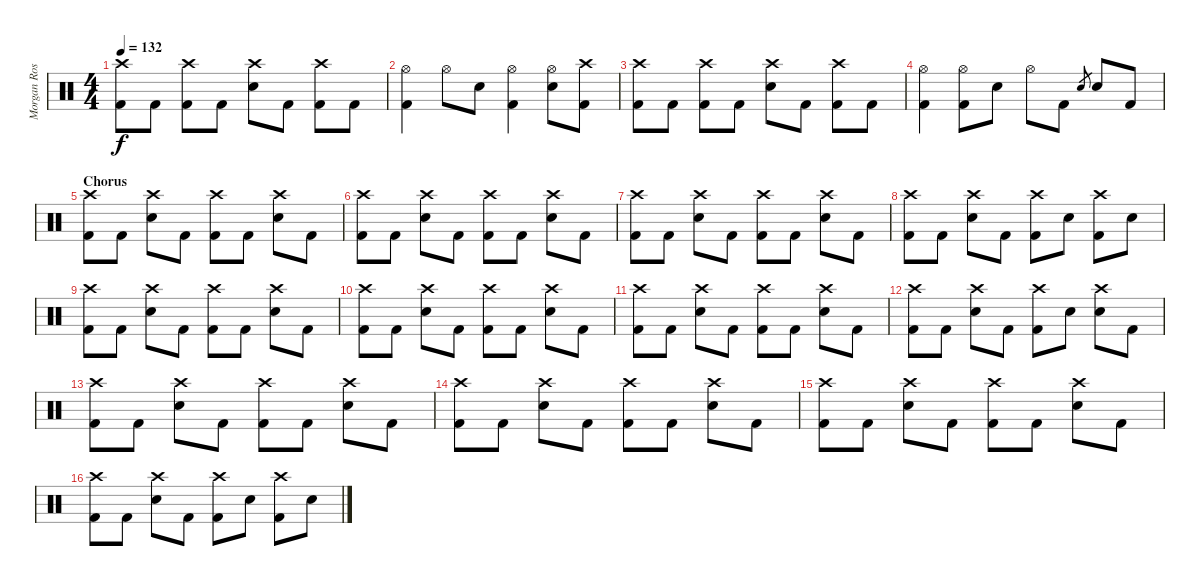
\track ("Morgan Rose" "Morgan Ros") {instrument percussion}
\staff {score}
\articulation defaults
\ts (4 4)
\tempo 132
\clef neutral
\ks c
("Crash high (hit)" "Kick (hit) 2").8{dy f} "Kick (hit) 2".8 ("Crash high (hit)" "Kick (hit) 2").8 "Kick (hit) 2".8 ("Crash high (hit)" "Electric Snare (hit)").8 "Kick (hit) 2".8 ("Crash high (hit)" "Kick (hit) 2").8 "Kick (hit) 2".8 |
("Hi-Hat (open)" "Kick (hit) 2").4 "Hi-Hat (open)".8 "Electric Snare (hit)".8 ("Hi-Hat (open)" "Kick (hit) 2").4 ("Hi-Hat (open)" "Electric Snare (hit)").8 ("Crash high (hit)" "Kick (hit) 2").8 |
("Crash high (hit)" "Kick (hit) 2").8 "Kick (hit) 2".8 ("Crash high (hit)" "Kick (hit) 2").8 "Kick (hit) 2".8 ("Crash high (hit)" "Electric Snare (hit)").8 "Kick (hit) 2".8 ("Crash high (hit)" "Kick (hit) 2").8 "Kick (hit) 2".8 |
("Hi-Hat (open)" "Kick (hit) 2").4 ("Hi-Hat (open)" "Kick (hit) 2").8 "Electric Snare (hit)".8 "Hi-Hat (open)".8 "Kick (hit) 2".8 "Electric Snare (hit)"{h}.8{gr} "Electric Snare (hit)".8 "Kick (hit) 2".8 |
\section ("" "Chorus")
("Crash high (hit)" "Kick (hit) 2").8 "Kick (hit) 2".8 ("Crash high (hit)" "Electric Snare (hit)").8 "Kick (hit) 2".8 ("Crash high (hit)" "Kick (hit) 2").8 "Kick (hit) 2".8 ("Crash high (hit)" "Electric Snare (hit)").8 "Kick (hit) 2".8 |
("Crash high (hit)" "Kick (hit) 2").8 "Kick (hit) 2".8 ("Crash high (hit)" "Electric Snare (hit)").8 "Kick (hit) 2".8 ("Crash high (hit)" "Kick (hit) 2").8 "Kick (hit) 2".8 ("Crash high (hit)" "Electric Snare (hit)").8 "Kick (hit) 2".8 |
("Crash high (hit)" "Kick (hit) 2").8 "Kick (hit) 2".8 ("Crash high (hit)" "Electric Snare (hit)").8 "Kick (hit) 2".8 ("Crash high (hit)" "Kick (hit) 2").8 "Kick (hit) 2".8 ("Crash high (hit)" "Electric Snare (hit)").8 "Kick (hit) 2".8 |
("Crash high (hit)" "Kick (hit) 2").8 "Kick (hit) 2".8 ("Crash high (hit)" "Electric Snare (hit)").8 "Kick (hit) 2".8 ("Crash high (hit)" "Kick (hit) 2").8 "Electric Snare (hit)".8 ("Crash high (hit)" "Kick (hit) 2").8 "Electric Snare (hit)".8 |
("Crash high (hit)" "Kick (hit) 2").8 "Kick (hit) 2".8 ("Crash high (hit)" "Electric Snare (hit)").8 "Kick (hit) 2".8 ("Crash high (hit)" "Kick (hit) 2").8 "Kick (hit) 2".8 ("Crash high (hit)" "Electric Snare (hit)").8 "Kick (hit) 2".8 |
("Crash high (hit)" "Kick (hit) 2").8 "Kick (hit) 2".8 ("Crash high (hit)" "Electric Snare (hit)").8 "Kick (hit) 2".8 ("Crash high (hit)" "Kick (hit) 2").8 "Kick (hit) 2".8 ("Crash high (hit)" "Electric Snare (hit)").8 "Kick (hit) 2".8 |
("Crash high (hit)" "Kick (hit) 2").8 "Kick (hit) 2".8 ("Crash high (hit)" "Electric Snare (hit)").8 "Kick (hit) 2".8 ("Crash high (hit)" "Kick (hit) 2").8 "Kick (hit) 2".8 ("Crash high (hit)" "Electric Snare (hit)").8 "Kick (hit) 2".8 |
("Crash high (hit)" "Kick (hit) 2").8 "Kick (hit) 2".8 ("Crash high (hit)" "Electric Snare (hit)").8 "Kick (hit) 2".8 ("Crash high (hit)" "Kick (hit) 2").8 "Electric Snare (hit)".8 ("Crash high (hit)" "Electric Snare (hit)").8 "Kick (hit) 2".8 |
("Crash high (hit)" "Kick (hit) 2").8 "Kick (hit) 2".8 ("Crash high (hit)" "Electric Snare (hit)").8 "Kick (hit) 2".8 ("Crash high (hit)" "Kick (hit) 2").8 "Kick (hit) 2".8 ("Crash high (hit)" "Electric Snare (hit)").8 "Kick (hit) 2".8 |
("Crash high (hit)" "Kick (hit) 2").8 "Kick (hit) 2".8 ("Crash high (hit)" "Electric Snare (hit)").8 "Kick (hit) 2".8 ("Crash high (hit)" "Kick (hit) 2").8 "Kick (hit) 2".8 ("Crash high (hit)" "Electric Snare (hit)").8 "Kick (hit) 2".8 |
("Crash high (hit)" "Kick (hit) 2").8 "Kick (hit) 2".8 ("Crash high (hit)" "Electric Snare (hit)").8 "Kick (hit) 2".8 ("Crash high (hit)" "Kick (hit) 2").8 "Kick (hit) 2".8 ("Crash high (hit)" "Electric Snare (hit)").8 "Kick (hit) 2".8 |
("Crash high (hit)" "Kick (hit) 2").8 "Kick (hit) 2".8 ("Crash high (hit)" "Electric Snare (hit)").8 "Kick (hit) 2".8 ("Crash high (hit)" "Kick (hit) 2").8 "Electric Snare (hit)".8 ("Crash high (hit)" "Kick (hit) 2").8 "Electric Snare (hit)".8
